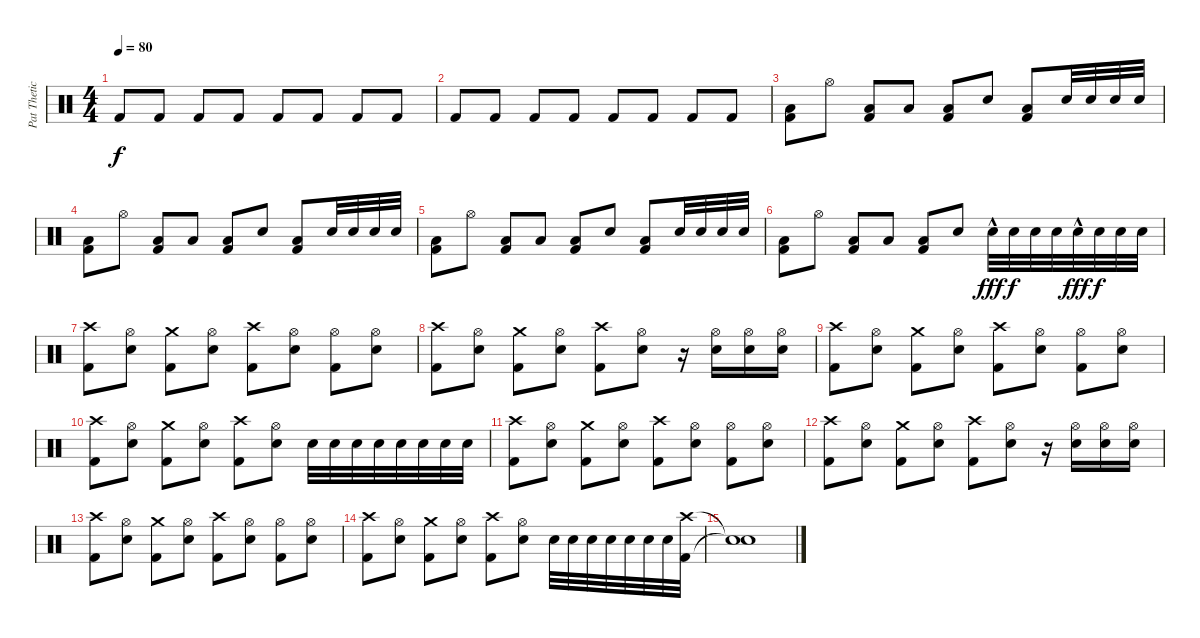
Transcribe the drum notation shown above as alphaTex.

\track ("Pat Thetic" "Pat Thetic") {instrument percussion}
\staff {score}
\articulation defaults
\ts (4 4)
\tempo 80
\clef neutral
\ks c "Kick (hit) 2".8{dy f} "Kick (hit) 2".8 "Kick (hit) 2".8 "Kick (hit) 2".8 "Kick (hit) 2".8 "Kick (hit) 2".8 "Kick (hit) 2".8 "Kick (hit) 2".8
|
"Kick (hit) 2".8 "Kick (hit) 2".8 "Kick (hit) 2".8 "Kick (hit) 2".8 "Kick (hit) 2".8 "Kick (hit) 2".8 "Kick (hit) 2".8 "Kick (hit) 2".8 |
("Low Floor Tom (hit)" "Kick (hit) 2").8 "Hi-Hat (open)".8 ("Low Floor Tom (hit)" "Kick (hit) 2").8 "Low Tom (hit)".8 ("Low Floor Tom (hit)" "Kick (hit) 2").8 "Electric Snare (hit)".8 ("Low Floor Tom (hit)" "Kick (hit) 2").8 "Electric Snare (hit)".32 "Electric Snare (hit)".32 "Electric Snare (hit)".32 "Electric Snare (hit)".32 |
("Low Floor Tom (hit)" "Kick (hit) 2").8 "Hi-Hat (open)".8 ("Low Floor Tom (hit)" "Kick (hit) 2").8 "Low Tom (hit)".8 ("Low Floor Tom (hit)" "Kick (hit) 2").8 "Electric Snare (hit)".8 ("Low Floor Tom (hit)" "Kick (hit) 2").8 "Electric Snare (hit)".32 "Electric Snare (hit)".32 "Electric Snare (hit)".32 "Electric Snare (hit)".32 |
("Low Floor Tom (hit)" "Kick (hit) 2").8 "Hi-Hat (open)".8 ("Low Floor Tom (hit)" "Kick (hit) 2").8 "Low Tom (hit)".8 ("Low Floor Tom (hit)" "Kick (hit) 2").8 "Electric Snare (hit)".8 ("Low Floor Tom (hit)" "Kick (hit) 2").8 "Electric Snare (hit)".32 "Electric Snare (hit)".32 "Electric Snare (hit)".32 "Electric Snare (hit)".32 |
("Low Floor Tom (hit)" "Kick (hit) 2").8 "Hi-Hat (open)".8 ("Low Floor Tom (hit)" "Kick (hit) 2").8 "Low Tom (hit)".8 ("Low Floor Tom (hit)" "Kick (hit) 2").8 "Electric Snare (hit)".8 "Electric Snare (hit)"{hac}.32{dy fff} "Electric Snare (hit)".32{dy f} "Electric Snare (hit)".32 "Electric Snare (hit)".32 "Electric Snare (hit)"{hac}.32{dy fff} "Electric Snare (hit)".32{dy f} "Electric Snare (hit)".32 "Electric Snare (hit)".32 |
("Crash high (hit)" "Kick (hit) 2").8 ("Hi-Hat (open)" "Electric Snare (hit)").8 ("Crash medium (hit)" "Kick (hit) 2").8 ("Hi-Hat (open)" "Electric Snare (hit)").8 ("Crash high (hit)" "Kick (hit) 2").8 ("Hi-Hat (open)" "Electric Snare (hit)").8 ("Hi-Hat (open)" "Kick (hit) 2").8 ("Hi-Hat (open)" "Electric Snare (hit)").8 |
("Crash high (hit)" "Kick (hit) 2").8 ("Hi-Hat (open)" "Electric Snare (hit)").8 ("Crash medium (hit)" "Kick (hit) 2").8 ("Hi-Hat (open)" "Electric Snare (hit)").8 ("Crash high (hit)" "Kick (hit) 2").8 ("Hi-Hat (open)" "Electric Snare (hit)").8 r.16 ("Hi-Hat (open)" "Electric Snare (hit)").16 ("Hi-Hat (open)" "Electric Snare (hit)").16 ("Hi-Hat (open)" "Electric Snare (hit)").16 |
("Crash high (hit)" "Kick (hit) 2").8 ("Hi-Hat (open)" "Electric Snare (hit)").8 ("Crash medium (hit)" "Kick (hit) 2").8 ("Hi-Hat (open)" "Electric Snare (hit)").8 ("Crash high (hit)" "Kick (hit) 2").8 ("Hi-Hat (open)" "Electric Snare (hit)").8 ("Hi-Hat (open)" "Kick (hit) 2").8 ("Hi-Hat (open)" "Electric Snare (hit)").8 |
("Crash high (hit)" "Kick (hit) 2").8 ("Hi-Hat (open)" "Electric Snare (hit)").8 ("Crash medium (hit)" "Kick (hit) 2").8 ("Hi-Hat (open)" "Electric Snare (hit)").8 ("Crash high (hit)" "Kick (hit) 2").8 ("Hi-Hat (open)" "Electric Snare (hit)").8 "Electric Snare (hit)".32 "Electric Snare (hit)".32 "Electric Snare (hit)".32 "Electric Snare (hit)".32 "Electric Snare (hit)".32 "Electric Snare (hit)".32 "Electric Snare (hit)".32 "Electric Snare (hit)".32 |
("Crash high (hit)" "Kick (hit) 2").8 ("Hi-Hat (open)" "Electric Snare (hit)").8 ("Crash medium (hit)" "Kick (hit) 2").8 ("Hi-Hat (open)" "Electric Snare (hit)").8 ("Crash high (hit)" "Kick (hit) 2").8 ("Hi-Hat (open)" "Electric Snare (hit)").8 ("Hi-Hat (open)" "Kick (hit) 2").8 ("Hi-Hat (open)" "Electric Snare (hit)").8 |
("Crash high (hit)" "Kick (hit) 2").8 ("Hi-Hat (open)" "Electric Snare (hit)").8 ("Crash medium (hit)" "Kick (hit) 2").8 ("Hi-Hat (open)" "Electric Snare (hit)").8 ("Crash high (hit)" "Kick (hit) 2").8 ("Hi-Hat (open)" "Electric Snare (hit)").8 r.16 ("Hi-Hat (open)" "Electric Snare (hit)").16 ("Hi-Hat (open)" "Electric Snare (hit)").16 ("Hi-Hat (open)" "Electric Snare (hit)").16 |
("Crash high (hit)" "Kick (hit) 2").8 ("Hi-Hat (open)" "Electric Snare (hit)").8 ("Crash medium (hit)" "Kick (hit) 2").8 ("Hi-Hat (open)" "Electric Snare (hit)").8 ("Crash high (hit)" "Kick (hit) 2").8 ("Hi-Hat (open)" "Electric Snare (hit)").8 ("Hi-Hat (open)" "Kick (hit) 2").8 ("Hi-Hat (open)" "Electric Snare (hit)").8 |
("Crash high (hit)" "Kick (hit) 2").8 ("Hi-Hat (open)" "Electric Snare (hit)").8 ("Crash medium (hit)" "Kick (hit) 2").8 ("Hi-Hat (open)" "Electric Snare (hit)").8 ("Crash high (hit)" "Kick (hit) 2").8 ("Hi-Hat (open)" "Electric Snare (hit)").8 "Electric Snare (hit)".32 "Electric Snare (hit)".32 "Electric Snare (hit)".32 "Electric Snare (hit)".32 "Electric Snare (hit)".32 "Electric Snare (hit)".32 "Electric Snare (hit)".32 ("Crash high (hit)" "Kick (hit) 2").32 |
("Snare (hit)"{t} "Snare (hit)"{t}).1
